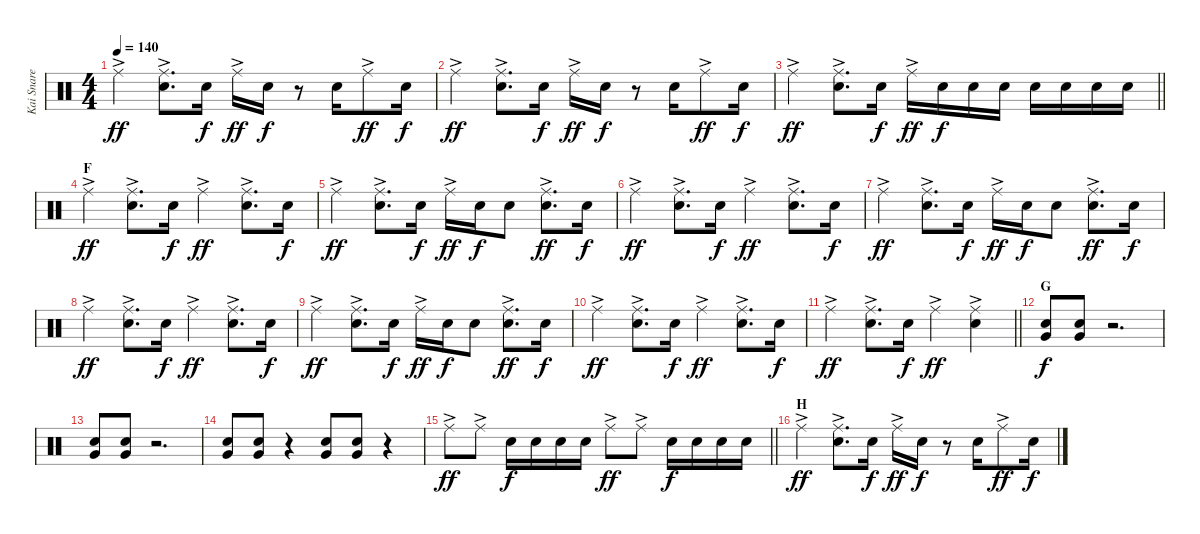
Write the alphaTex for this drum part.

\track ("Kai Snare" "Kai Snare") {instrument percussion}
\staff {score}
\articulation defaults
\ts (4 4)
\tempo 140
\clef neutral
\ks c "Ride (middle)"{ac}.4{dy ff}
("Ride (middle)"{ac} "Snare (hit) 2").8{d} "Snare (hit) 2".16{dy f} "Ride (middle)"{ac}.16{dy ff} "Snare (hit) 2".16{dy f} r.8 "Snare (hit) 2".16 "Ride (middle)"{ac}.8{dy ff} "Snare (hit) 2".16{dy f} |
"Ride (middle)"{ac}.4{dy ff} ("Ride (middle)"{ac} "Snare (hit) 2").8{d} "Snare (hit) 2".16{dy f} "Ride (middle)"{ac}.16{dy ff} "Snare (hit) 2".16{dy f} r.8 "Snare (hit) 2".16 "Ride (middle)"{ac}.8{dy ff} "Snare (hit) 2".16{dy f} |
\barLineRight lightlight "Ride (middle)"{ac}.4{dy ff}
("Ride (middle)"{ac} "Snare (hit) 2").8{d} "Snare (hit) 2".16{dy f} "Ride (middle)"{ac}.16{dy ff} "Snare (hit) 2".16{dy f} "Snare (hit) 2".16 "Snare (hit) 2".16 "Snare (hit) 2".16 "Snare (hit) 2".16 "Snare (hit) 2".16 "Snare (hit) 2".16 |
\section ("" "F")
"Ride (middle)"{ac}.4{dy ff} ("Ride (middle)"{ac} "Snare (hit) 2").8{d} "Snare (hit) 2".16{dy f} "Ride (middle)"{ac}.4{dy ff} ("Ride (middle)"{ac} "Snare (hit) 2").8{d} "Snare (hit) 2".16{dy f} |
"Ride (middle)"{ac}.4{dy ff} ("Ride (middle)"{ac} "Snare (hit) 2").8{d} "Snare (hit) 2".16{dy f} "Ride (middle)"{ac}.16{dy ff} "Snare (hit) 2".16{dy f} "Snare (hit) 2".8 ("Ride (middle)"{ac} "Snare (hit) 2").8{d dy ff} "Snare (hit) 2".16{dy f} |
"Ride (middle)"{ac}.4{dy ff} ("Ride (middle)"{ac} "Snare (hit) 2").8{d} "Snare (hit) 2".16{dy f} "Ride (middle)"{ac}.4{dy ff} ("Ride (middle)"{ac} "Snare (hit) 2").8{d} "Snare (hit) 2".16{dy f} |
"Ride (middle)"{ac}.4{dy ff} ("Ride (middle)"{ac} "Snare (hit) 2").8{d} "Snare (hit) 2".16{dy f} "Ride (middle)"{ac}.16{dy ff} "Snare (hit) 2".16{dy f} "Snare (hit) 2".8 ("Ride (middle)"{ac} "Snare (hit) 2").8{d dy ff} "Snare (hit) 2".16{dy f} |
"Ride (middle)"{ac}.4{dy ff} ("Ride (middle)"{ac} "Snare (hit) 2").8{d} "Snare (hit) 2".16{dy f} "Ride (middle)"{ac}.4{dy ff} ("Ride (middle)"{ac} "Snare (hit) 2").8{d} "Snare (hit) 2".16{dy f} |
"Ride (middle)"{ac}.4{dy ff} ("Ride (middle)"{ac} "Snare (hit) 2").8{d} "Snare (hit) 2".16{dy f} "Ride (middle)"{ac}.16{dy ff} "Snare (hit) 2".16{dy f} "Snare (hit) 2".8 ("Ride (middle)"{ac} "Snare (hit) 2").8{d dy ff} "Snare (hit) 2".16{dy f} |
"Ride (middle)"{ac}.4{dy ff} ("Ride (middle)"{ac} "Snare (hit) 2").8{d} "Snare (hit) 2".16{dy f} "Ride (middle)"{ac}.4{dy ff} ("Ride (middle)"{ac} "Snare (hit) 2").8{d} "Snare (hit) 2".16{dy f} |
\barLineRight lightlight "Ride (middle)"{ac}.4{dy ff}
("Ride (middle)"{ac} "Snare (hit) 2").8{d} "Snare (hit) 2".16{dy f} "Ride (middle)"{ac}.4{dy ff} ("Ride (middle)"{ac} "Snare (hit) 2").4 |
\section ("" "G")
("Very Low Tom (hit)" "Snare (hit) 2").8{dy f} ("Very Low Tom (hit)" "Snare (hit) 2").8 r.2{d} |
("Very Low Tom (hit)" "Snare (hit) 2").8 ("Very Low Tom (hit)" "Snare (hit) 2").8 r.2{d} |
("Very Low Tom (hit)" "Snare (hit) 2").8 ("Very Low Tom (hit)" "Snare (hit) 2").8 r.4 ("Very Low Tom (hit)" "Snare (hit) 2").8 ("Very Low Tom (hit)" "Snare (hit) 2").8 r.4 |
\barLineRight lightlight "Ride (middle)"{ac}.8{dy ff} "Ride (middle)"{ac}.8 "Snare (hit) 2".16{dy f} "Snare (hit) 2".16 "Snare (hit) 2".16 "Snare (hit) 2".16 "Ride (middle)"{ac}.8{dy ff} "Ride (middle)"{ac}.8 "Snare (hit) 2".16{dy f} "Snare (hit) 2".16 "Snare (hit) 2".16 "Snare (hit) 2".16
|
\section ("" "H")
"Ride (middle)"{ac}.4{dy ff} ("Ride (middle)"{ac} "Snare (hit) 2").8{d} "Snare (hit) 2".16{dy f} "Ride (middle)"{ac}.16{dy ff} "Snare (hit) 2".16{dy f} r.8 "Snare (hit) 2".16 "Ride (middle)"{ac}.8{dy ff} "Snare (hit) 2".16{dy f}
